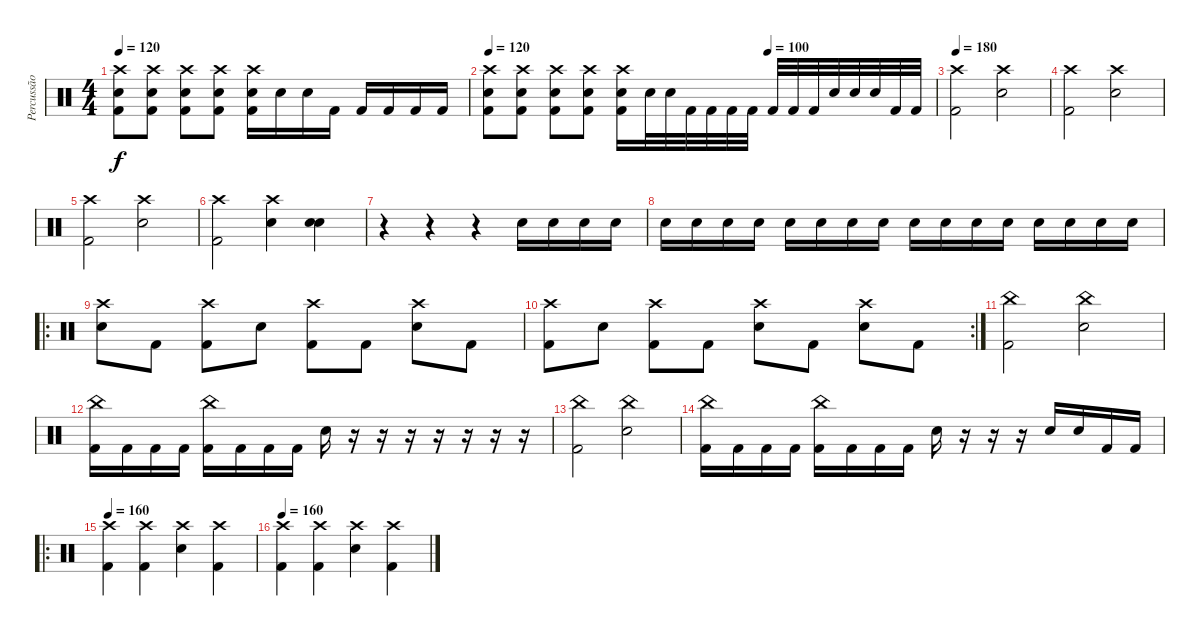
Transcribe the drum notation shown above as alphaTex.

\track ("Percussão" "Percussão") {instrument percussion}
\staff {score}
\articulation defaults
\ts (4 4)
\tempo 120
\clef neutral
\ks c
("Crash high (hit)" "Electric Snare (hit)" "Kick (hit) 2").8{dy f} ("Crash high (hit)" "Electric Snare (hit)" "Kick (hit) 2").8 ("Crash high (hit)" "Electric Snare (hit)" "Kick (hit) 2").8 ("Crash high (hit)" "Electric Snare (hit)" "Kick (hit) 2").8 ("Crash high (hit)" "Electric Snare (hit)" "Kick (hit) 2").16 "Electric Snare (hit)".16 "Electric Snare (hit)".16 "Kick (hit) 2".16 "Kick (hit) 2".16 "Kick (hit) 2".16 "Kick (hit) 2".16 "Kick (hit) 2".16 |
\tempo 120
\tempo (100 0.625)
("Crash high (hit)" "Electric Snare (hit)" "Kick (hit) 2").8 ("Crash high (hit)" "Electric Snare (hit)" "Kick (hit) 2").8 ("Crash high (hit)" "Electric Snare (hit)" "Kick (hit) 2").8 ("Crash high (hit)" "Electric Snare (hit)" "Kick (hit) 2").8 ("Crash high (hit)" "Electric Snare (hit)" "Kick (hit) 2").16 "Electric Snare (hit)".32 "Electric Snare (hit)".32 "Kick (hit) 2".32 "Kick (hit) 2".32 "Kick (hit) 2".32 "Kick (hit) 2".32 "Kick (hit) 2".32 "Kick (hit) 2".32 "Kick (hit) 2".32 "Electric Snare (hit)".32 "Electric Snare (hit)".32 "Electric Snare (hit)".32 "Kick (hit) 2".32 "Kick (hit) 2".32 |
\tempo 180
("Crash high (hit)" "Kick (hit) 2").2 ("Crash high (hit)" "Electric Snare (hit)").2 |
("Crash high (hit)" "Kick (hit) 2").2 ("Crash high (hit)" "Electric Snare (hit)").2 |
("Crash high (hit)" "Kick (hit) 2").2 ("Crash high (hit)" "Electric Snare (hit)").2 |
("Crash high (hit)" "Kick (hit) 2").2 ("Crash high (hit)" "Electric Snare (hit)").4 ("Electric Snare (hit)" "Electric Snare (hit)").4 |
r.4 r.4 r.4 "Electric Snare (hit)".16 "Electric Snare (hit)".16 "Electric Snare (hit)".16 "Electric Snare (hit)".16 |
"Electric Snare (hit)".16 "Electric Snare (hit)".16 "Electric Snare (hit)".16 "Electric Snare (hit)".16 "Electric Snare (hit)".16 "Electric Snare (hit)".16 "Electric Snare (hit)".16 "Electric Snare (hit)".16 "Electric Snare (hit)".16 "Electric Snare (hit)".16 "Electric Snare (hit)".16 "Electric Snare (hit)".16 "Electric Snare (hit)".16 "Electric Snare (hit)".16 "Electric Snare (hit)".16 "Electric Snare (hit)".16 |
\ro
("Crash high (hit)" "Electric Snare (hit)").8 "Kick (hit) 2".8 ("Crash high (hit)" "Kick (hit) 2").8 "Electric Snare (hit)".8 ("Crash high (hit)" "Kick (hit) 2").8 "Kick (hit) 2".8 ("Crash high (hit)" "Electric Snare (hit)").8 "Kick (hit) 2".8 |
\rc 2
("Crash high (hit)" "Kick (hit) 2").8 "Electric Snare (hit)".8 ("Crash high (hit)" "Kick (hit) 2").8 "Kick (hit) 2".8 ("Crash high (hit)" "Electric Snare (hit)").8 "Kick (hit) 2".8 ("Crash high (hit)" "Electric Snare (hit)").8 "Kick (hit) 2".8 |
("China (hit)" "Kick (hit) 2").2 ("China (hit)" "Electric Snare (hit)").2 |
("China (hit)" "Kick (hit) 2").16 "Kick (hit) 2".16 "Kick (hit) 2".16 "Kick (hit) 2".16 ("China (hit)" "Kick (hit) 2").16 "Kick (hit) 2".16 "Kick (hit) 2".16 "Kick (hit) 2".16 "Electric Snare (hit)".16 r.16 r.16 r.16 r.16 r.16 r.16 r.16 |
("China (hit)" "Kick (hit) 2").2 ("China (hit)" "Electric Snare (hit)").2 |
("China (hit)" "Kick (hit) 2").16 "Kick (hit) 2".16 "Kick (hit) 2".16 "Kick (hit) 2".16 ("China (hit)" "Kick (hit) 2").16 "Kick (hit) 2".16 "Kick (hit) 2".16 "Kick (hit) 2".16 "Electric Snare (hit)".16 r.16 r.16 r.16 "Electric Snare (hit)".16 "Electric Snare (hit)".16 "Kick (hit) 2".16 "Kick (hit) 2".16 |
\ro
\tempo 160
("Crash high (hit)" "Kick (hit) 2").4 ("Crash high (hit)" "Kick (hit) 2").4 ("Crash high (hit)" "Electric Snare (hit)").4 ("Crash high (hit)" "Kick (hit) 2").4 |
\tempo 160
("Crash high (hit)" "Kick (hit) 2").4 ("Crash high (hit)" "Kick (hit) 2").4 ("Crash high (hit)" "Electric Snare (hit)").4 ("Crash high (hit)" "Kick (hit) 2").4
